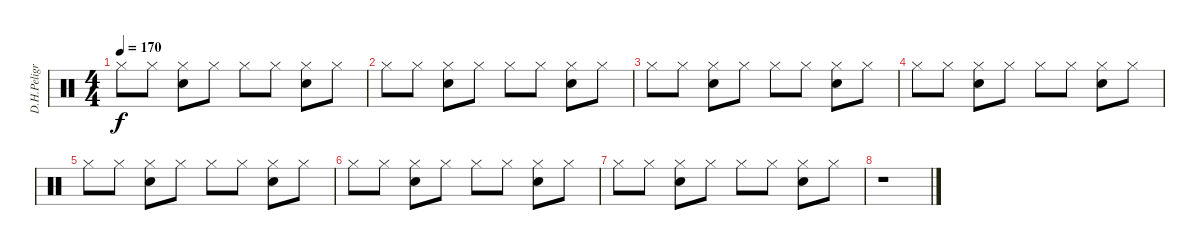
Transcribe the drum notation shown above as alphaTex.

\track ("D.H.Peligro" "D.H.Peligr") {instrument percussion}
\staff {score}
\articulation defaults
\ts (4 4)
\tempo 170
\clef neutral
\ks c "Hi-Hat (closed)".8{dy f} "Hi-Hat (closed)".8
("Hi-Hat (closed)" "Electric Snare (hit)").8 "Hi-Hat (closed)".8 "Hi-Hat (closed)".8 "Hi-Hat (closed)".8 ("Hi-Hat (closed)" "Electric Snare (hit)").8 "Hi-Hat (closed)".8 |
"Hi-Hat (closed)".8 "Hi-Hat (closed)".8 ("Hi-Hat (closed)" "Electric Snare (hit)").8 "Hi-Hat (closed)".8 "Hi-Hat (closed)".8 "Hi-Hat (closed)".8 ("Hi-Hat (closed)" "Electric Snare (hit)").8 "Hi-Hat (closed)".8 |
"Hi-Hat (closed)".8 "Hi-Hat (closed)".8 ("Hi-Hat (closed)" "Electric Snare (hit)").8 "Hi-Hat (closed)".8 "Hi-Hat (closed)".8 "Hi-Hat (closed)".8 ("Hi-Hat (closed)" "Electric Snare (hit)").8 "Hi-Hat (closed)".8 |
"Hi-Hat (closed)".8 "Hi-Hat (closed)".8 ("Hi-Hat (closed)" "Electric Snare (hit)").8 "Hi-Hat (closed)".8 "Hi-Hat (closed)".8 "Hi-Hat (closed)".8 ("Hi-Hat (closed)" "Electric Snare (hit)").8 "Hi-Hat (closed)".8 |
"Hi-Hat (closed)".8 "Hi-Hat (closed)".8 ("Hi-Hat (closed)" "Electric Snare (hit)").8 "Hi-Hat (closed)".8 "Hi-Hat (closed)".8 "Hi-Hat (closed)".8 ("Hi-Hat (closed)" "Electric Snare (hit)").8 "Hi-Hat (closed)".8 |
"Hi-Hat (closed)".8 "Hi-Hat (closed)".8 ("Hi-Hat (closed)" "Electric Snare (hit)").8 "Hi-Hat (closed)".8 "Hi-Hat (closed)".8 "Hi-Hat (closed)".8 ("Hi-Hat (closed)" "Electric Snare (hit)").8 "Hi-Hat (closed)".8 |
"Hi-Hat (closed)".8 "Hi-Hat (closed)".8 ("Hi-Hat (closed)" "Electric Snare (hit)").8 "Hi-Hat (closed)".8 "Hi-Hat (closed)".8 "Hi-Hat (closed)".8 ("Hi-Hat (closed)" "Electric Snare (hit)").8 "Hi-Hat (closed)".8 |
r.1
